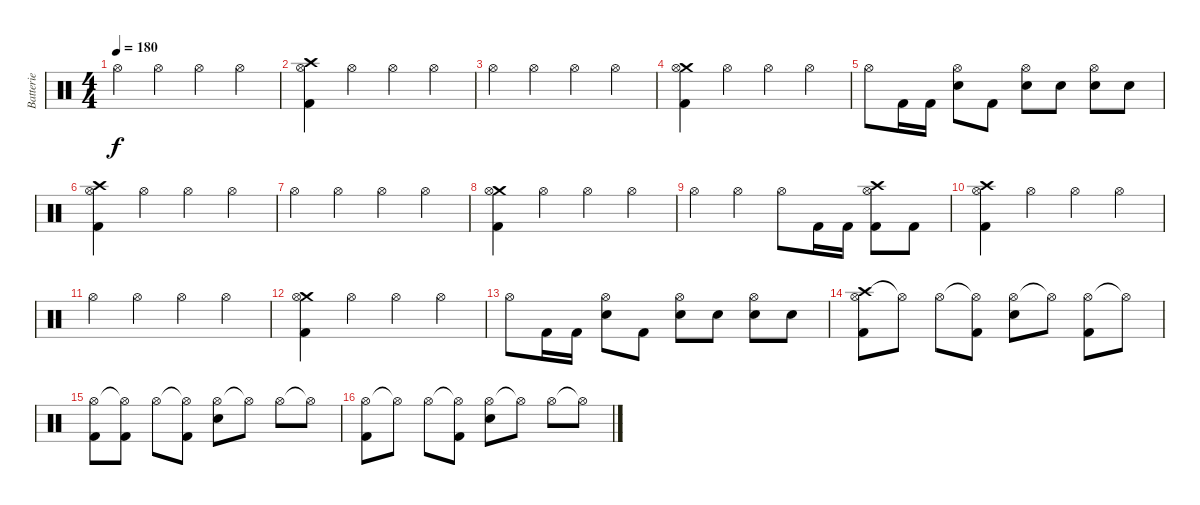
\track ("Batterie" "Batterie") {instrument percussion}
\staff {score}
\articulation defaults
\ts (4 4)
\tempo 180
\clef neutral
\ks c "Hi-Hat (open)".4{dy f} "Hi-Hat (open)".4 "Hi-Hat (open)".4 "Hi-Hat (open)".4
|
("Crash high (hit)" "Hi-Hat (open)" "Kick (hit) 2").4 "Hi-Hat (open)".4 "Hi-Hat (open)".4 "Hi-Hat (open)".4 |
"Hi-Hat (open)".4 "Hi-Hat (open)".4 "Hi-Hat (open)".4 "Hi-Hat (open)".4 |
("Crash medium (hit)" "Hi-Hat (open)" "Kick (hit) 2").4 "Hi-Hat (open)".4 "Hi-Hat (open)".4 "Hi-Hat (open)".4 |
"Hi-Hat (open)".8 "Kick (hit) 2".16 "Kick (hit) 2".16 ("Hi-Hat (open)" "Electric Snare (hit)").8 "Kick (hit) 2".8 ("Hi-Hat (open)" "Electric Snare (hit)").8 "Electric Snare (hit)".8 ("Hi-Hat (open)" "Electric Snare (hit)").8 "Electric Snare (hit)".8 |
("Crash high (hit)" "Hi-Hat (open)" "Kick (hit) 2").4 "Hi-Hat (open)".4 "Hi-Hat (open)".4 "Hi-Hat (open)".4 |
"Hi-Hat (open)".4 "Hi-Hat (open)".4 "Hi-Hat (open)".4 "Hi-Hat (open)".4 |
("Crash medium (hit)" "Hi-Hat (open)" "Kick (hit) 2").4 "Hi-Hat (open)".4 "Hi-Hat (open)".4 "Hi-Hat (open)".4 |
"Hi-Hat (open)".4 "Hi-Hat (open)".4 "Hi-Hat (open)".8 "Kick (hit) 2".16 "Kick (hit) 2".16 ("Crash high (hit)" "Hi-Hat (open)" "Kick (hit) 2").8 "Kick (hit) 2".8 |
("Crash high (hit)" "Hi-Hat (open)" "Kick (hit) 2").4 "Hi-Hat (open)".4 "Hi-Hat (open)".4 "Hi-Hat (open)".4 |
"Hi-Hat (open)".4 "Hi-Hat (open)".4 "Hi-Hat (open)".4 "Hi-Hat (open)".4 |
("Crash medium (hit)" "Hi-Hat (open)" "Kick (hit) 2").4 "Hi-Hat (open)".4 "Hi-Hat (open)".4 "Hi-Hat (open)".4 |
"Hi-Hat (open)".8 "Kick (hit) 2".16 "Kick (hit) 2".16 ("Hi-Hat (open)" "Electric Snare (hit)").8 "Kick (hit) 2".8 ("Hi-Hat (open)" "Electric Snare (hit)").8 "Electric Snare (hit)".8 ("Hi-Hat (open)" "Electric Snare (hit)").8 "Electric Snare (hit)".8 |
("Crash high (hit)" "Hi-Hat (open)" "Kick (hit) 2").8 "Hi-Hat (open)"{t}.8 "Hi-Hat (open)".8 ("Hi-Hat (open)"{t} "Kick (hit) 2").8 ("Hi-Hat (open)" "Electric Snare (hit)").8 "Hi-Hat (open)"{t}.8 ("Hi-Hat (open)" "Kick (hit) 2").8 "Hi-Hat (open)"{t}.8 |
("Hi-Hat (open)" "Kick (hit) 2").8 ("Hi-Hat (open)"{t} "Kick (hit) 2").8 "Hi-Hat (open)".8 ("Hi-Hat (open)"{t} "Kick (hit) 2").8 ("Hi-Hat (open)" "Electric Snare (hit)").8 "Hi-Hat (open)"{t}.8 "Hi-Hat (open)".8 "Hi-Hat (open)"{t}.8 |
("Hi-Hat (open)" "Kick (hit) 2").8 "Hi-Hat (open)"{t}.8 "Hi-Hat (open)".8 ("Hi-Hat (open)"{t} "Kick (hit) 2").8 ("Hi-Hat (open)" "Electric Snare (hit)").8 "Hi-Hat (open)"{t}.8 "Hi-Hat (open)".8 "Hi-Hat (open)"{t}.8
